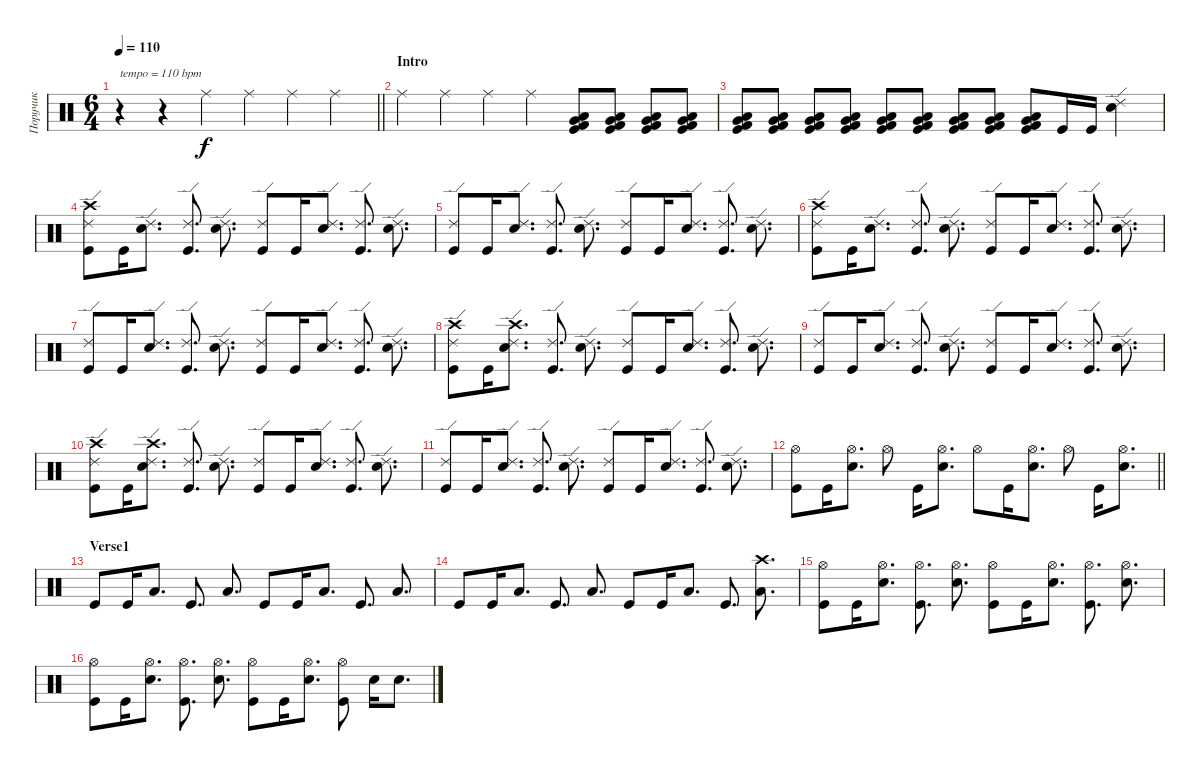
\track ("Поручик" "Поручик") {instrument percussion}
\staff {score}
\articulation defaults
\ts (6 4)
\tempo 110
\clef neutral
\barLineRight lightlight
\ks c
r.4{txt "tempo = 110 bpm" dy f} r.4 "Ride (middle)".4 "Ride (middle)".4 "Ride (middle)".4 "Ride (middle)".4 |
\section ("" "Intro")
"Ride (middle)".4 "Ride (middle)".4 "Ride (middle)".4 "Ride (middle)".4 ("Very Low Tom (hit)" "Low Floor Tom (hit)" "Kick (hit)" "Kick (hit) 2").8 ("Very Low Tom (hit)" "Low Floor Tom (hit)" "Kick (hit)" "Kick (hit) 2").8 ("Very Low Tom (hit)" "Low Floor Tom (hit)" "Kick (hit)" "Kick (hit) 2").8 ("Very Low Tom (hit)" "Low Floor Tom (hit)" "Kick (hit)" "Kick (hit) 2").8 |
("Very Low Tom (hit)" "Low Floor Tom (hit)" "Kick (hit)" "Kick (hit) 2").8 ("Very Low Tom (hit)" "Low Floor Tom (hit)" "Kick (hit)" "Kick (hit) 2").8 ("Very Low Tom (hit)" "Low Floor Tom (hit)" "Kick (hit)" "Kick (hit) 2").8 ("Very Low Tom (hit)" "Low Floor Tom (hit)" "Kick (hit)" "Kick (hit) 2").8 ("Very Low Tom (hit)" "Low Floor Tom (hit)" "Kick (hit)" "Kick (hit) 2").8 ("Very Low Tom (hit)" "Low Floor Tom (hit)" "Kick (hit)" "Kick (hit) 2").8 ("Very Low Tom (hit)" "Low Floor Tom (hit)" "Kick (hit)" "Kick (hit) 2").8 ("Very Low Tom (hit)" "Low Floor Tom (hit)" "Kick (hit)" "Kick (hit) 2").8 ("Very Low Tom (hit)" "Low Floor Tom (hit)" "Kick (hit)" "Kick (hit) 2").8 "Kick (hit)".16 "Kick (hit)".16 ("Ride (edge) 2" "Snare (hit) 2").4 |
("Ride (edge) 2" "Kick (hit)" "Crash high (hit)").8 "Kick (hit)".16 ("Ride (edge) 2" "Snare (hit) 2").8{d} ("Ride (edge) 2" "Kick (hit)").8{d} ("Ride (edge) 2" "Snare (hit) 2").8{d} ("Ride (edge) 2" "Kick (hit)").8 "Kick (hit)".16 ("Ride (edge) 2" "Snare (hit) 2").8{d} ("Ride (edge) 2" "Kick (hit)").8{d} ("Ride (edge) 2" "Snare (hit) 2").8{d} |
("Ride (edge) 2" "Kick (hit)").8 "Kick (hit)".16 ("Ride (edge) 2" "Snare (hit) 2").8{d} ("Ride (edge) 2" "Kick (hit)").8{d} ("Ride (edge) 2" "Snare (hit) 2").8{d} ("Ride (edge) 2" "Kick (hit)").8 "Kick (hit)".16 ("Ride (edge) 2" "Snare (hit) 2").8{d} ("Ride (edge) 2" "Kick (hit)").8{d} ("Ride (edge) 2" "Snare (hit) 2").8{d} |
("Ride (edge) 2" "Kick (hit)" "Crash high (hit)").8 "Kick (hit)".16 ("Ride (edge) 2" "Snare (hit) 2").8{d} ("Ride (edge) 2" "Kick (hit)").8{d} ("Ride (edge) 2" "Snare (hit) 2").8{d} ("Ride (edge) 2" "Kick (hit)").8 "Kick (hit)".16 ("Ride (edge) 2" "Snare (hit) 2").8{d} ("Ride (edge) 2" "Kick (hit)").8{d} ("Ride (edge) 2" "Snare (hit) 2").8{d} |
("Ride (edge) 2" "Kick (hit)").8 "Kick (hit)".16 ("Ride (edge) 2" "Snare (hit) 2").8{d} ("Ride (edge) 2" "Kick (hit)").8{d} ("Ride (edge) 2" "Snare (hit) 2").8{d} ("Ride (edge) 2" "Kick (hit)").8 "Kick (hit)".16 ("Ride (edge) 2" "Snare (hit) 2").8{d} ("Ride (edge) 2" "Kick (hit)").8{d} ("Ride (edge) 2" "Snare (hit) 2").8{d} |
("Ride (edge) 2" "Kick (hit)" "Crash high (hit)").8 "Kick (hit)".16 ("Ride (edge) 2" "Snare (hit) 2" "Crash high (hit)").8{d} ("Ride (edge) 2" "Kick (hit)").8{d} ("Ride (edge) 2" "Snare (hit) 2").8{d} ("Ride (edge) 2" "Kick (hit)").8 "Kick (hit)".16 ("Ride (edge) 2" "Snare (hit) 2").8{d} ("Ride (edge) 2" "Kick (hit)").8{d} ("Ride (edge) 2" "Snare (hit) 2").8{d} |
("Ride (edge) 2" "Kick (hit)").8 "Kick (hit)".16 ("Ride (edge) 2" "Snare (hit) 2").8{d} ("Ride (edge) 2" "Kick (hit)").8{d} ("Ride (edge) 2" "Snare (hit) 2").8{d} ("Ride (edge) 2" "Kick (hit)").8 "Kick (hit)".16 ("Ride (edge) 2" "Snare (hit) 2").8{d} ("Ride (edge) 2" "Kick (hit)").8{d} ("Ride (edge) 2" "Snare (hit) 2").8{d} |
("Ride (edge) 2" "Kick (hit)" "Crash high (hit)").8 "Kick (hit)".16 ("Ride (edge) 2" "Snare (hit) 2" "Crash high (hit)").8{d} ("Ride (edge) 2" "Kick (hit)").8{d} ("Ride (edge) 2" "Snare (hit) 2").8{d} ("Ride (edge) 2" "Kick (hit)").8 "Kick (hit)".16 ("Ride (edge) 2" "Snare (hit) 2").8{d} ("Ride (edge) 2" "Kick (hit)").8{d} ("Ride (edge) 2" "Snare (hit) 2").8{d} |
("Ride (edge) 2" "Kick (hit)").8 "Kick (hit)".16 ("Ride (edge) 2" "Snare (hit) 2").8{d} ("Ride (edge) 2" "Kick (hit)").8{d} ("Ride (edge) 2" "Snare (hit) 2").8{d} ("Ride (edge) 2" "Kick (hit)").8 "Kick (hit)".16 ("Ride (edge) 2" "Snare (hit) 2").8{d} ("Ride (edge) 2" "Kick (hit)").8{d} ("Ride (edge) 2" "Snare (hit) 2").8{d} |
\barLineRight lightlight
("Hi-Hat (open)" "Kick (hit)").8 "Kick (hit)".16 ("Hi-Hat (open)" "Snare (hit) 2").8{d} "Hi-Hat (open)".8 "Kick (hit)".16 ("Hi-Hat (open)" "Snare (hit) 2").8{d} "Hi-Hat (open)".8 "Kick (hit)".16 ("Hi-Hat (open)" "Snare (hit) 2").8{d} "Hi-Hat (open)".8 "Kick (hit)".16 ("Hi-Hat (open)" "Snare (hit) 2").8{d} |
\section ("" "Verse1")
"Kick (hit)".8 "Kick (hit)".16 "Low Floor Tom (hit)".8{d} "Kick (hit)".8{d} "Low Floor Tom (hit)".8{d} "Kick (hit)".8 "Kick (hit)".16 "Low Floor Tom (hit)".8{d} "Kick (hit)".8{d} "Low Floor Tom (hit)".8{d} |
"Kick (hit)".8 "Kick (hit)".16 "Low Floor Tom (hit)".8{d} "Kick (hit)".8{d} "Low Floor Tom (hit)".8{d} "Kick (hit)".8 "Kick (hit)".16 "Low Floor Tom (hit)".8{d} "Kick (hit)".8{d} ("Low Floor Tom (hit)" "Crash high (hit)").8{d} |
("Hi-Hat (open)" "Kick (hit)").8 "Kick (hit)".16 ("Hi-Hat (open)" "Snare (hit) 2").8{d} ("Hi-Hat (open)" "Kick (hit)").8{d} ("Hi-Hat (open)" "Snare (hit) 2").8{d} ("Hi-Hat (open)" "Kick (hit)").8 "Kick (hit)".16 ("Hi-Hat (open)" "Snare (hit) 2").8{d} ("Hi-Hat (open)" "Kick (hit)").8{d} ("Hi-Hat (open)" "Snare (hit) 2").8{d} |
("Hi-Hat (open)" "Kick (hit)").8 "Kick (hit)".16 ("Hi-Hat (open)" "Snare (hit) 2").8{d} ("Hi-Hat (open)" "Kick (hit)").8{d} ("Hi-Hat (open)" "Snare (hit) 2").8{d} ("Hi-Hat (open)" "Kick (hit)").8 "Kick (hit)".16 ("Hi-Hat (open)" "Snare (hit) 2").8{d} ("Hi-Hat (open)" "Kick (hit)").8 "Snare (hit) 2".16 "Snare (hit) 2".8{d}
